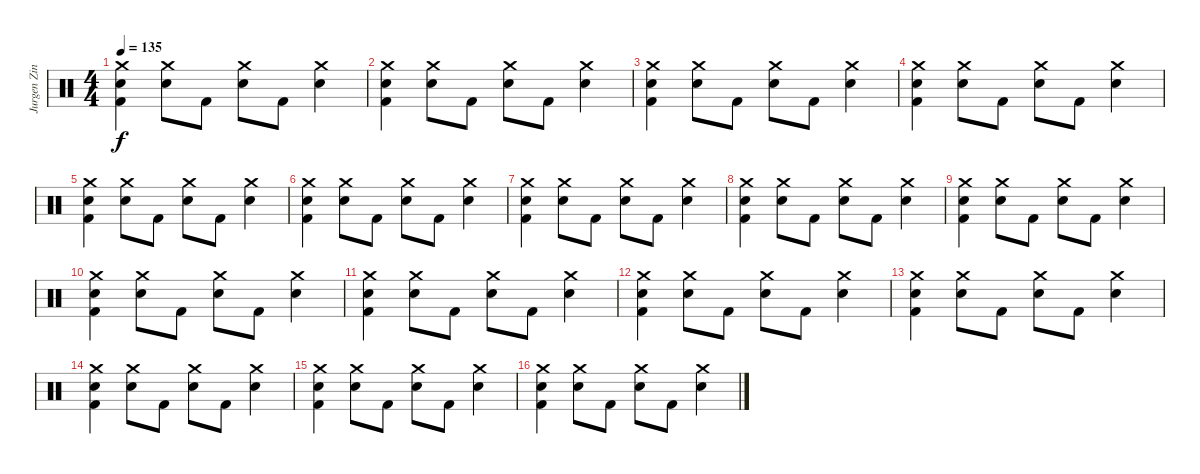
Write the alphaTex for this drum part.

\track ("Jurgen Zing" "Jurgen Zin") {instrument percussion}
\staff {score}
\articulation defaults
\ts (4 4)
\tempo 135
\clef neutral
\ks c
("Crash medium (hit)" "Electric Snare (hit)" "Kick (hit) 2").4{dy f} ("Crash medium (hit)" "Electric Snare (hit)").8 "Kick (hit) 2".8 ("Crash medium (hit)" "Electric Snare (hit)").8 "Kick (hit) 2".8 ("Crash medium (hit)" "Electric Snare (hit)").4 |
("Crash medium (hit)" "Electric Snare (hit)" "Kick (hit) 2").4 ("Crash medium (hit)" "Electric Snare (hit)").8 "Kick (hit) 2".8 ("Crash medium (hit)" "Electric Snare (hit)").8 "Kick (hit) 2".8 ("Crash medium (hit)" "Electric Snare (hit)").4 |
("Crash medium (hit)" "Electric Snare (hit)" "Kick (hit) 2").4 ("Crash medium (hit)" "Electric Snare (hit)").8 "Kick (hit) 2".8 ("Crash medium (hit)" "Electric Snare (hit)").8 "Kick (hit) 2".8 ("Crash medium (hit)" "Electric Snare (hit)").4 |
("Crash medium (hit)" "Electric Snare (hit)" "Kick (hit) 2").4 ("Crash medium (hit)" "Electric Snare (hit)").8 "Kick (hit) 2".8 ("Crash medium (hit)" "Electric Snare (hit)").8 "Kick (hit) 2".8 ("Crash medium (hit)" "Electric Snare (hit)").4 |
("Crash medium (hit)" "Electric Snare (hit)" "Kick (hit) 2").4 ("Crash medium (hit)" "Electric Snare (hit)").8 "Kick (hit) 2".8 ("Crash medium (hit)" "Electric Snare (hit)").8 "Kick (hit) 2".8 ("Crash medium (hit)" "Electric Snare (hit)").4 |
("Crash medium (hit)" "Electric Snare (hit)" "Kick (hit) 2").4 ("Crash medium (hit)" "Electric Snare (hit)").8 "Kick (hit) 2".8 ("Crash medium (hit)" "Electric Snare (hit)").8 "Kick (hit) 2".8 ("Crash medium (hit)" "Electric Snare (hit)").4 |
("Crash medium (hit)" "Electric Snare (hit)" "Kick (hit) 2").4 ("Crash medium (hit)" "Electric Snare (hit)").8 "Kick (hit) 2".8 ("Crash medium (hit)" "Electric Snare (hit)").8 "Kick (hit) 2".8 ("Crash medium (hit)" "Electric Snare (hit)").4 |
("Crash medium (hit)" "Electric Snare (hit)" "Kick (hit) 2").4 ("Crash medium (hit)" "Electric Snare (hit)").8 "Kick (hit) 2".8 ("Crash medium (hit)" "Electric Snare (hit)").8 "Kick (hit) 2".8 ("Crash medium (hit)" "Electric Snare (hit)").4 |
("Crash medium (hit)" "Electric Snare (hit)" "Kick (hit) 2").4 ("Crash medium (hit)" "Electric Snare (hit)").8 "Kick (hit) 2".8 ("Crash medium (hit)" "Electric Snare (hit)").8 "Kick (hit) 2".8 ("Crash medium (hit)" "Electric Snare (hit)").4 |
("Crash medium (hit)" "Electric Snare (hit)" "Kick (hit) 2").4 ("Crash medium (hit)" "Electric Snare (hit)").8 "Kick (hit) 2".8 ("Crash medium (hit)" "Electric Snare (hit)").8 "Kick (hit) 2".8 ("Crash medium (hit)" "Electric Snare (hit)").4 |
("Crash medium (hit)" "Electric Snare (hit)" "Kick (hit) 2").4 ("Crash medium (hit)" "Electric Snare (hit)").8 "Kick (hit) 2".8 ("Crash medium (hit)" "Electric Snare (hit)").8 "Kick (hit) 2".8 ("Crash medium (hit)" "Electric Snare (hit)").4 |
("Crash medium (hit)" "Electric Snare (hit)" "Kick (hit) 2").4 ("Crash medium (hit)" "Electric Snare (hit)").8 "Kick (hit) 2".8 ("Crash medium (hit)" "Electric Snare (hit)").8 "Kick (hit) 2".8 ("Crash medium (hit)" "Electric Snare (hit)").4 |
("Crash medium (hit)" "Electric Snare (hit)" "Kick (hit) 2").4 ("Crash medium (hit)" "Electric Snare (hit)").8 "Kick (hit) 2".8 ("Crash medium (hit)" "Electric Snare (hit)").8 "Kick (hit) 2".8 ("Crash medium (hit)" "Electric Snare (hit)").4 |
("Crash medium (hit)" "Electric Snare (hit)" "Kick (hit) 2").4 ("Crash medium (hit)" "Electric Snare (hit)").8 "Kick (hit) 2".8 ("Crash medium (hit)" "Electric Snare (hit)").8 "Kick (hit) 2".8 ("Crash medium (hit)" "Electric Snare (hit)").4 |
("Crash medium (hit)" "Electric Snare (hit)" "Kick (hit) 2").4 ("Crash medium (hit)" "Electric Snare (hit)").8 "Kick (hit) 2".8 ("Crash medium (hit)" "Electric Snare (hit)").8 "Kick (hit) 2".8 ("Crash medium (hit)" "Electric Snare (hit)").4 |
("Crash medium (hit)" "Electric Snare (hit)" "Kick (hit) 2").4 ("Crash medium (hit)" "Electric Snare (hit)").8 "Kick (hit) 2".8 ("Crash medium (hit)" "Electric Snare (hit)").8 "Kick (hit) 2".8 ("Crash medium (hit)" "Electric Snare (hit)").4
